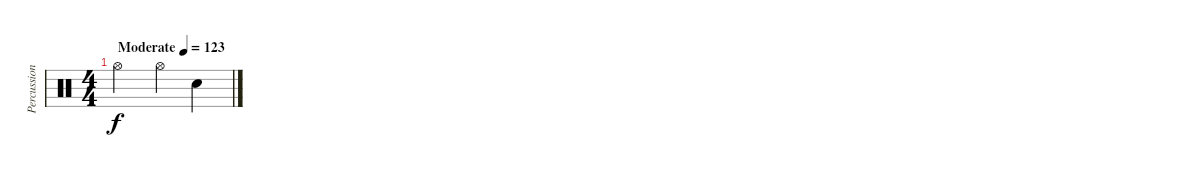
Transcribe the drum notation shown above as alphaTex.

\track ("Percussion" "Percussion") {instrument percussion}
\staff {score}
\articulation defaults
\ts (4 4)
\tempo (123 "Moderate")
\clef neutral
\ks c "Hi-Hat (open)".2{dy f volume 0} "Hi-Hat (open)".4{volume 13} "Snare (hit) 2".4
